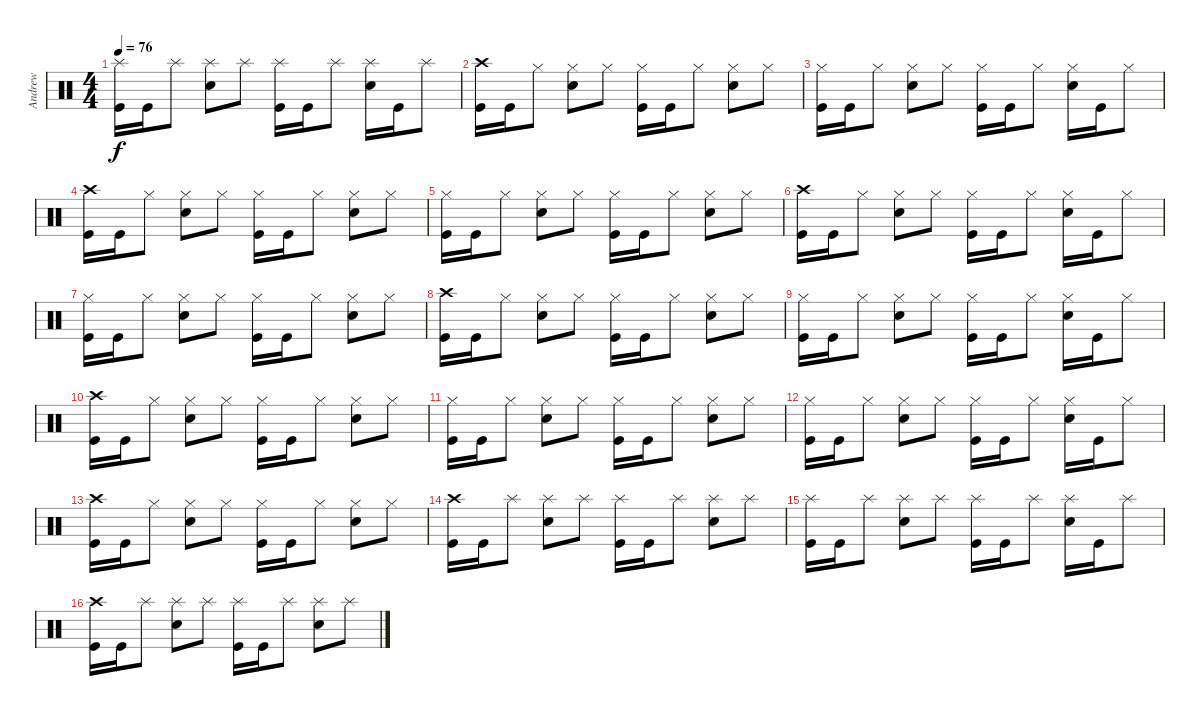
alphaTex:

\track ("Andrew" "Andrew") {instrument percussion}
\staff {score}
\articulation defaults
\ts (4 4)
\tempo 76
\clef neutral
\ks c
("Splash (hit)" "Kick (hit)").16{dy f} "Kick (hit)".16 "Splash (hit)".8 ("Splash (hit)" "Snare (hit) 2").8 "Splash (hit)".8 ("Splash (hit)" "Kick (hit)").16 "Kick (hit)".16 "Splash (hit)".8 ("Splash (hit)" "Snare (hit) 2").16 "Kick (hit)".16 "Splash (hit)".8 |
("Crash high (hit)" "Kick (hit)").16 "Kick (hit)".16 "Hi-Hat (closed)".8 ("Hi-Hat (closed)" "Snare (hit) 2").8 "Hi-Hat (closed)".8 ("Hi-Hat (closed)" "Kick (hit)").16 "Kick (hit)".16 "Hi-Hat (closed)".8 ("Hi-Hat (closed)" "Snare (hit) 2").8 "Hi-Hat (closed)".8 |
("Hi-Hat (closed)" "Kick (hit)").16 "Kick (hit)".16 "Hi-Hat (closed)".8 ("Hi-Hat (closed)" "Snare (hit) 2").8 "Hi-Hat (closed)".8 ("Hi-Hat (closed)" "Kick (hit)").16 "Kick (hit)".16 "Hi-Hat (closed)".8 ("Hi-Hat (closed)" "Snare (hit) 2").16 "Kick (hit)".16 "Hi-Hat (closed)".8 |
("Crash high (hit)" "Kick (hit)").16 "Kick (hit)".16 "Hi-Hat (closed)".8 ("Hi-Hat (closed)" "Snare (hit) 2").8 "Hi-Hat (closed)".8 ("Hi-Hat (closed)" "Kick (hit)").16 "Kick (hit)".16 "Hi-Hat (closed)".8 ("Hi-Hat (closed)" "Snare (hit) 2").8 "Hi-Hat (closed)".8 |
("Hi-Hat (closed)" "Kick (hit)").16 "Kick (hit)".16 "Hi-Hat (closed)".8 ("Hi-Hat (closed)" "Snare (hit) 2").8 "Hi-Hat (closed)".8 ("Hi-Hat (closed)" "Kick (hit)").16 "Kick (hit)".16 "Hi-Hat (closed)".8 ("Hi-Hat (closed)" "Snare (hit) 2").8 "Hi-Hat (closed)".8 |
("Crash high (hit)" "Kick (hit)").16 "Kick (hit)".16 "Hi-Hat (closed)".8 ("Hi-Hat (closed)" "Snare (hit) 2").8 "Hi-Hat (closed)".8 ("Hi-Hat (closed)" "Kick (hit)").16 "Kick (hit)".16 "Hi-Hat (closed)".8 ("Hi-Hat (closed)" "Snare (hit) 2").16 "Kick (hit)".16 "Hi-Hat (closed)".8 |
("Hi-Hat (closed)" "Kick (hit)").16 "Kick (hit)".16 "Hi-Hat (closed)".8 ("Hi-Hat (closed)" "Snare (hit) 2").8 "Hi-Hat (closed)".8 ("Hi-Hat (closed)" "Kick (hit)").16 "Kick (hit)".16 "Hi-Hat (closed)".8 ("Hi-Hat (closed)" "Snare (hit) 2").8 "Hi-Hat (closed)".8 |
("Crash high (hit)" "Kick (hit)").16 "Kick (hit)".16 "Hi-Hat (closed)".8 ("Hi-Hat (closed)" "Snare (hit) 2").8 "Hi-Hat (closed)".8 ("Hi-Hat (closed)" "Kick (hit)").16 "Kick (hit)".16 "Hi-Hat (closed)".8 ("Hi-Hat (closed)" "Snare (hit) 2").8 "Hi-Hat (closed)".8 |
("Hi-Hat (closed)" "Kick (hit)").16 "Kick (hit)".16 "Hi-Hat (closed)".8 ("Hi-Hat (closed)" "Snare (hit) 2").8 "Hi-Hat (closed)".8 ("Hi-Hat (closed)" "Kick (hit)").16 "Kick (hit)".16 "Hi-Hat (closed)".8 ("Hi-Hat (closed)" "Snare (hit) 2").16 "Kick (hit)".16 "Hi-Hat (closed)".8 |
("Crash high (hit)" "Kick (hit)").16 "Kick (hit)".16 "Hi-Hat (closed)".8 ("Hi-Hat (closed)" "Snare (hit) 2").8 "Hi-Hat (closed)".8 ("Hi-Hat (closed)" "Kick (hit)").16 "Kick (hit)".16 "Hi-Hat (closed)".8 ("Hi-Hat (closed)" "Snare (hit) 2").8 "Hi-Hat (closed)".8 |
("Hi-Hat (closed)" "Kick (hit)").16 "Kick (hit)".16 "Hi-Hat (closed)".8 ("Hi-Hat (closed)" "Snare (hit) 2").8 "Hi-Hat (closed)".8 ("Hi-Hat (closed)" "Kick (hit)").16 "Kick (hit)".16 "Hi-Hat (closed)".8 ("Hi-Hat (closed)" "Snare (hit) 2").8 "Hi-Hat (closed)".8 |
("Hi-Hat (closed)" "Kick (hit)").16 "Kick (hit)".16 "Hi-Hat (closed)".8 ("Hi-Hat (closed)" "Snare (hit) 2").8 "Hi-Hat (closed)".8 ("Hi-Hat (closed)" "Kick (hit)").16 "Kick (hit)".16 "Hi-Hat (closed)".8 ("Hi-Hat (closed)" "Snare (hit) 2").16 "Kick (hit)".16 "Hi-Hat (closed)".8 |
("Crash high (hit)" "Kick (hit)").16 "Kick (hit)".16 "Hi-Hat (closed)".8 ("Hi-Hat (closed)" "Snare (hit) 2").8 "Hi-Hat (closed)".8 ("Hi-Hat (closed)" "Kick (hit)").16 "Kick (hit)".16 "Hi-Hat (closed)".8 ("Hi-Hat (closed)" "Snare (hit) 2").8 "Hi-Hat (closed)".8 |
("Crash high (hit)" "Kick (hit)").16 "Kick (hit)".16 "Splash (hit)".8 ("Splash (hit)" "Snare (hit) 2").8 "Splash (hit)".8 ("Splash (hit)" "Kick (hit)").16 "Kick (hit)".16 "Splash (hit)".8 ("Splash (hit)" "Snare (hit) 2").8 "Splash (hit)".8 |
("Splash (hit)" "Kick (hit)").16 "Kick (hit)".16 "Splash (hit)".8 ("Splash (hit)" "Snare (hit) 2").8 "Splash (hit)".8 ("Splash (hit)" "Kick (hit)").16 "Kick (hit)".16 "Splash (hit)".8 ("Splash (hit)" "Snare (hit) 2").16 "Kick (hit)".16 "Splash (hit)".8 |
("Crash high (hit)" "Kick (hit)").16 "Kick (hit)".16 "Splash (hit)".8 ("Splash (hit)" "Snare (hit) 2").8 "Splash (hit)".8 ("Splash (hit)" "Kick (hit)").16 "Kick (hit)".16 "Splash (hit)".8 ("Splash (hit)" "Snare (hit) 2").8 "Splash (hit)".8
